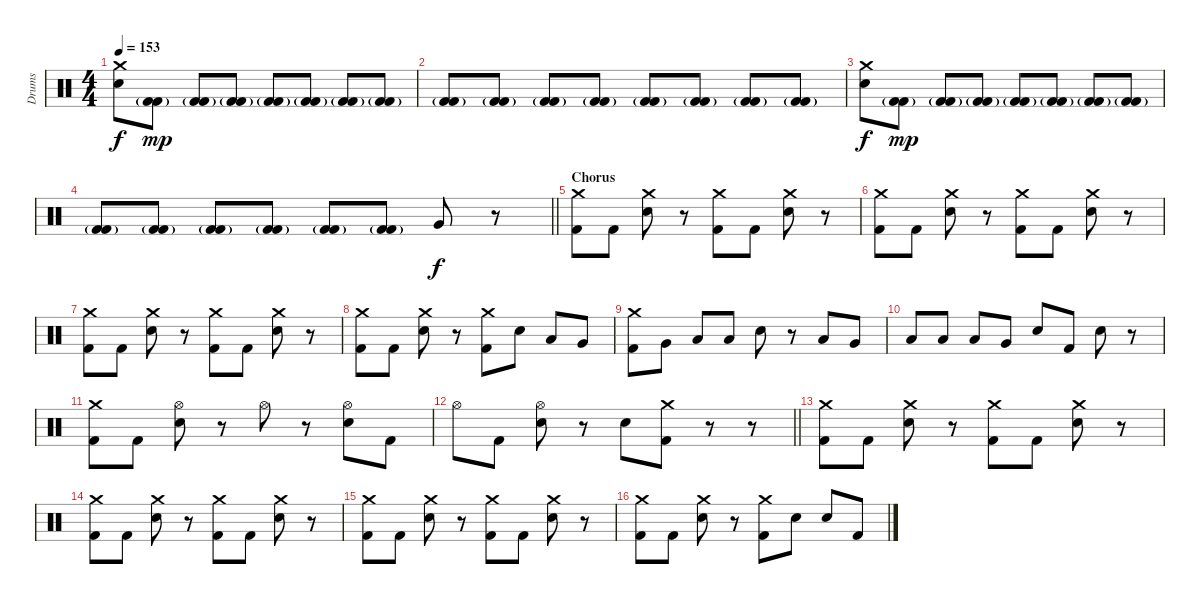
\track ("Drums" "Drums") {instrument percussion}
\staff {score}
\articulation defaults
\ts (4 4)
\tempo 153
\clef neutral
\ks c
("Crash medium (hit)" "Electric Snare (hit)").8{dy f} ("Kick (hit) 2"{g} "Kick (hit) 2").8{dy mp} ("Kick (hit) 2"{g} "Kick (hit) 2").8 ("Kick (hit) 2"{g} "Kick (hit) 2").8 ("Kick (hit) 2"{g} "Kick (hit) 2").8 ("Kick (hit) 2"{g} "Kick (hit) 2").8 ("Kick (hit) 2"{g} "Kick (hit) 2").8 ("Kick (hit) 2"{g} "Kick (hit) 2").8 |
("Kick (hit) 2"{g} "Kick (hit) 2").8 ("Kick (hit) 2"{g} "Kick (hit) 2").8 ("Kick (hit) 2"{g} "Kick (hit) 2").8 ("Kick (hit) 2"{g} "Kick (hit) 2").8 ("Kick (hit) 2"{g} "Kick (hit) 2").8 ("Kick (hit) 2"{g} "Kick (hit) 2").8 ("Kick (hit) 2"{g} "Kick (hit) 2").8 ("Kick (hit) 2"{g} "Kick (hit) 2").8 |
("Crash medium (hit)" "Electric Snare (hit)").8{dy f} ("Kick (hit) 2"{g} "Kick (hit) 2").8{dy mp} ("Kick (hit) 2"{g} "Kick (hit) 2").8 ("Kick (hit) 2"{g} "Kick (hit) 2").8 ("Kick (hit) 2"{g} "Kick (hit) 2").8 ("Kick (hit) 2"{g} "Kick (hit) 2").8 ("Kick (hit) 2"{g} "Kick (hit) 2").8 ("Kick (hit) 2"{g} "Kick (hit) 2").8 |
\barLineRight lightlight
("Kick (hit) 2"{g} "Kick (hit) 2").8 ("Kick (hit) 2"{g} "Kick (hit) 2").8 ("Kick (hit) 2"{g} "Kick (hit) 2").8 ("Kick (hit) 2"{g} "Kick (hit) 2").8 ("Kick (hit) 2"{g} "Kick (hit) 2").8 ("Kick (hit) 2"{g} "Kick (hit) 2").8 "Very Low Tom (hit)".8{dy f} r.8 |
\section ("" "Chorus")
("Crash medium (hit)" "Kick (hit) 2").8 "Kick (hit) 2".8 ("Crash medium (hit)" "Electric Snare (hit)").8 r.8 ("Crash medium (hit)" "Kick (hit) 2").8 "Kick (hit) 2".8 ("Crash medium (hit)" "Electric Snare (hit)").8 r.8 |
("Crash medium (hit)" "Kick (hit) 2").8 "Kick (hit) 2".8 ("Crash medium (hit)" "Electric Snare (hit)").8 r.8 ("Crash medium (hit)" "Kick (hit) 2").8 "Kick (hit) 2".8 ("Crash medium (hit)" "Electric Snare (hit)").8 r.8 |
("Crash medium (hit)" "Kick (hit) 2").8 "Kick (hit) 2".8 ("Crash medium (hit)" "Electric Snare (hit)").8 r.8 ("Crash medium (hit)" "Kick (hit) 2").8 "Kick (hit) 2".8 ("Crash medium (hit)" "Electric Snare (hit)").8 r.8 |
("Crash medium (hit)" "Kick (hit) 2").8 "Kick (hit) 2".8 ("Crash medium (hit)" "Electric Snare (hit)").8 r.8 ("Crash medium (hit)" "Kick (hit) 2").8 "Electric Snare (hit)".8 "Low Tom (hit)".8 "Very Low Tom (hit)".8 |
("Crash medium (hit)" "Kick (hit) 2").8 "Very Low Tom (hit)".8 "Low Tom (hit)".8 "Low Tom (hit)".8 "Electric Snare (hit)".8 r.8 "Low Tom (hit)".8 "Very Low Tom (hit)".8 |
"Low Tom (hit)".8 "Low Tom (hit)".8 "Low Tom (hit)".8 "Very Low Tom (hit)".8 "Electric Snare (hit)".8 "Kick (hit) 2".8 "Electric Snare (hit)".8 r.8 |
("Crash medium (hit)" "Kick (hit) 2").8 "Kick (hit) 2".8 ("Hi-Hat (open)" "Electric Snare (hit)").8 r.8 "Hi-Hat (open)".8 r.8 ("Hi-Hat (open)" "Electric Snare (hit)").8 "Kick (hit) 2".8 |
\barLineRight lightlight "Hi-Hat (open)".8 "Kick (hit) 2".8
("Hi-Hat (open)" "Electric Snare (hit)").8 r.8 "Electric Snare (hit)".8 ("Crash medium (hit)" "Kick (hit) 2").8 r.8 r.8 |
("Crash medium (hit)" "Kick (hit) 2").8 "Kick (hit) 2".8 ("Crash medium (hit)" "Electric Snare (hit)").8 r.8 ("Crash medium (hit)" "Kick (hit) 2").8 "Kick (hit) 2".8 ("Crash medium (hit)" "Electric Snare (hit)").8 r.8 |
("Crash medium (hit)" "Kick (hit) 2").8 "Kick (hit) 2".8 ("Crash medium (hit)" "Electric Snare (hit)").8 r.8 ("Crash medium (hit)" "Kick (hit) 2").8 "Kick (hit) 2".8 ("Crash medium (hit)" "Electric Snare (hit)").8 r.8 |
("Crash medium (hit)" "Kick (hit) 2").8 "Kick (hit) 2".8 ("Crash medium (hit)" "Electric Snare (hit)").8 r.8 ("Crash medium (hit)" "Kick (hit) 2").8 "Kick (hit) 2".8 ("Crash medium (hit)" "Electric Snare (hit)").8 r.8 |
("Crash medium (hit)" "Kick (hit) 2").8 "Kick (hit) 2".8 ("Crash medium (hit)" "Electric Snare (hit)").8 r.8 ("Crash medium (hit)" "Kick (hit) 2").8 "Electric Snare (hit)".8 "Electric Snare (hit)".8 "Kick (hit) 2".8
